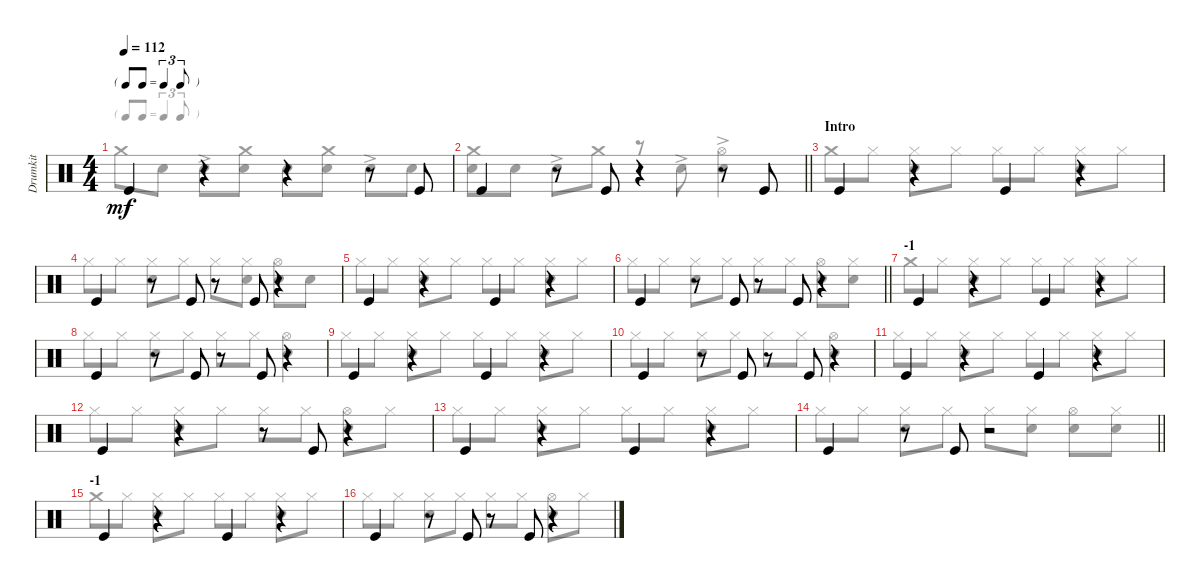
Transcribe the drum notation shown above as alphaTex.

\track ("Drumkit" "Drumkit") {instrument percussion}
\staff {score}
\articulation defaults
\voice
\ts (4 4)
\tf triplet8th
\tempo 112
\clef neutral
\ks c "Kick (hit)".4{dy mf}
r.4 r.4 r.8 "Kick (hit)".8 |
\barLineRight lightlight "Kick (hit)".4
r.8 "Kick (hit)".8 r.4 r.8 "Kick (hit)".8 |
\section ("" "Intro")
"Kick (hit)".4 r.4 "Kick (hit)".4 r.4 |
"Kick (hit)".4 r.8 "Kick (hit)".8 r.8 "Kick (hit)".8 r.4 |
"Kick (hit)".4 r.4 "Kick (hit)".4 r.4 |
\barLineRight lightlight "Kick (hit)".4
r.8 "Kick (hit)".8 r.8 "Kick (hit)".8 r.4 |
\section ("" "-1")
"Kick (hit)".4 r.4 "Kick (hit)".4 r.4 |
"Kick (hit)".4 r.8 "Kick (hit)".8 r.8 "Kick (hit)".8 r.4 |
"Kick (hit)".4 r.4 "Kick (hit)".4 r.4 |
"Kick (hit)".4 r.8 "Kick (hit)".8 r.8 "Kick (hit)".8 r.4 |
"Kick (hit)".4 r.4 "Kick (hit)".4 r.4 |
"Kick (hit)".4 r.4 r.8 "Kick (hit)".8 r.4 |
"Kick (hit)".4 r.4 "Kick (hit)".4 r.4 |
\barLineRight lightlight "Kick (hit)".4
r.8 "Kick (hit)".8 r.2 |
\section ("" "-1")
"Kick (hit)".4 r.4 "Kick (hit)".4 r.4 |
"Kick (hit)".4 r.8 "Kick (hit)".8 r.8 "Kick (hit)".8 r.4
\voice
\clef neutral
\ottava regular
\simile none
\ks c "Crash medium (hit)".8{dy mf} "Snare (hit) 2".8 "Snare (hit) 2"{ac}.8
("Snare (hit) 2" "Crash medium (hit)").8 "Snare (hit) 2".8 ("Snare (hit) 2" "Crash medium (hit)").8 "Snare (hit) 2"{ac}.8 "Snare (hit) 2".8 |
\barLineRight lightlight
("Snare (hit) 2" "Crash medium (hit)").8 "Snare (hit) 2".8 "Snare (hit) 2"{ac}.8 "Crash medium (hit)".8 r.8 "Snare (hit) 2"{ac}.8 ("Hi-Hat (open)" "Snare (hit) 2"{ac}).4 |
"Crash medium (hit)".8 "Hi-Hat (closed)".8 ("Hi-Hat (closed)" "Snare (hit) 2").8 "Hi-Hat (closed)".8 "Hi-Hat (closed)".8 "Hi-Hat (closed)".8 ("Hi-Hat (closed)" "Snare (hit) 2").8 "Hi-Hat (closed)".8 |
"Hi-Hat (closed)".8 "Hi-Hat (closed)".8 ("Hi-Hat (closed)" "Snare (hit) 2").8 "Hi-Hat (closed)".8 "Hi-Hat (closed)".8 ("Hi-Hat (closed)" "Snare (hit) 2").8 ("Hi-Hat (open)" "Snare (hit) 2").8 "Snare (hit) 2".8 |
"Hi-Hat (closed)".8 "Hi-Hat (closed)".8 ("Hi-Hat (closed)" "Snare (hit) 2").8 "Hi-Hat (closed)".8 "Hi-Hat (closed)".8 "Hi-Hat (closed)".8 ("Hi-Hat (closed)" "Snare (hit) 2").8 "Hi-Hat (closed)".8 |
\barLineRight lightlight "Hi-Hat (closed)".8 "Hi-Hat (closed)".8
("Hi-Hat (closed)" "Snare (hit) 2").8 "Hi-Hat (closed)".8 "Hi-Hat (closed)".8 "Hi-Hat (closed)".8 ("Hi-Hat (open)" "Snare (hit) 2").8 ("Hi-Hat (closed)" "Snare (hit) 2").8 |
"Crash medium (hit)".8 "Hi-Hat (closed)".8 ("Hi-Hat (closed)" "Snare (hit) 2").8 "Hi-Hat (closed)".8 "Hi-Hat (closed)".8 "Hi-Hat (closed)".8 ("Hi-Hat (closed)" "Snare (hit) 2").8 "Hi-Hat (closed)".8 |
"Hi-Hat (closed)".8 "Hi-Hat (closed)".8 ("Hi-Hat (closed)" "Snare (hit) 2").8 "Hi-Hat (closed)".8 "Hi-Hat (closed)".8 "Hi-Hat (closed)".8 ("Hi-Hat (open)" "Snare (hit) 2").4 |
"Hi-Hat (closed)".8 "Hi-Hat (closed)".8 ("Hi-Hat (closed)" "Snare (hit) 2").8 "Hi-Hat (closed)".8 "Hi-Hat (closed)".8 "Hi-Hat (closed)".8 ("Hi-Hat (closed)" "Snare (hit) 2").8 "Hi-Hat (closed)".8 |
"Hi-Hat (closed)".8 "Hi-Hat (closed)".8 ("Hi-Hat (closed)" "Snare (hit) 2").8 "Hi-Hat (closed)".8 "Hi-Hat (closed)".8 "Hi-Hat (closed)".8 ("Hi-Hat (open)" "Snare (hit) 2").4 |
"Hi-Hat (closed)".8 "Hi-Hat (closed)".8 ("Hi-Hat (closed)" "Snare (hit) 2").8 "Hi-Hat (closed)".8 "Hi-Hat (closed)".8 "Hi-Hat (closed)".8 ("Hi-Hat (closed)" "Snare (hit) 2").8 "Hi-Hat (closed)".8 |
"Hi-Hat (closed)".8 "Hi-Hat (closed)".8 ("Hi-Hat (closed)" "Snare (hit) 2").8 "Hi-Hat (closed)".8 "Hi-Hat (closed)".8 "Hi-Hat (closed)".8 ("Hi-Hat (open)" "Snare (hit) 2").8 "Hi-Hat (closed)".8 |
"Hi-Hat (closed)".8 "Hi-Hat (closed)".8 ("Hi-Hat (closed)" "Snare (hit) 2").8 "Hi-Hat (closed)".8 "Hi-Hat (closed)".8 "Hi-Hat (closed)".8 ("Hi-Hat (closed)" "Snare (hit) 2").8 "Hi-Hat (closed)".8 |
\barLineRight lightlight "Hi-Hat (closed)".8 "Hi-Hat (closed)".8
("Hi-Hat (closed)" "Snare (hit) 2").8 "Hi-Hat (closed)".8 "Hi-Hat (closed)".8 ("Hi-Hat (closed)" "Snare (hit) 2").8 ("Hi-Hat (open)" "Snare (hit) 2").8 ("Hi-Hat (closed)" "Snare (hit) 2").8 |
"Crash medium (hit)".8 "Hi-Hat (closed)".8 ("Hi-Hat (closed)" "Snare (hit) 2").8 "Hi-Hat (closed)".8 "Hi-Hat (closed)".8 "Hi-Hat (closed)".8 ("Hi-Hat (closed)" "Snare (hit) 2").8 "Hi-Hat (closed)".8 |
"Hi-Hat (closed)".8 "Hi-Hat (closed)".8 ("Hi-Hat (closed)" "Snare (hit) 2").8 "Hi-Hat (closed)".8 "Hi-Hat (closed)".8 "Hi-Hat (closed)".8 ("Hi-Hat (open)" "Snare (hit) 2").8 "Hi-Hat (closed)".8
